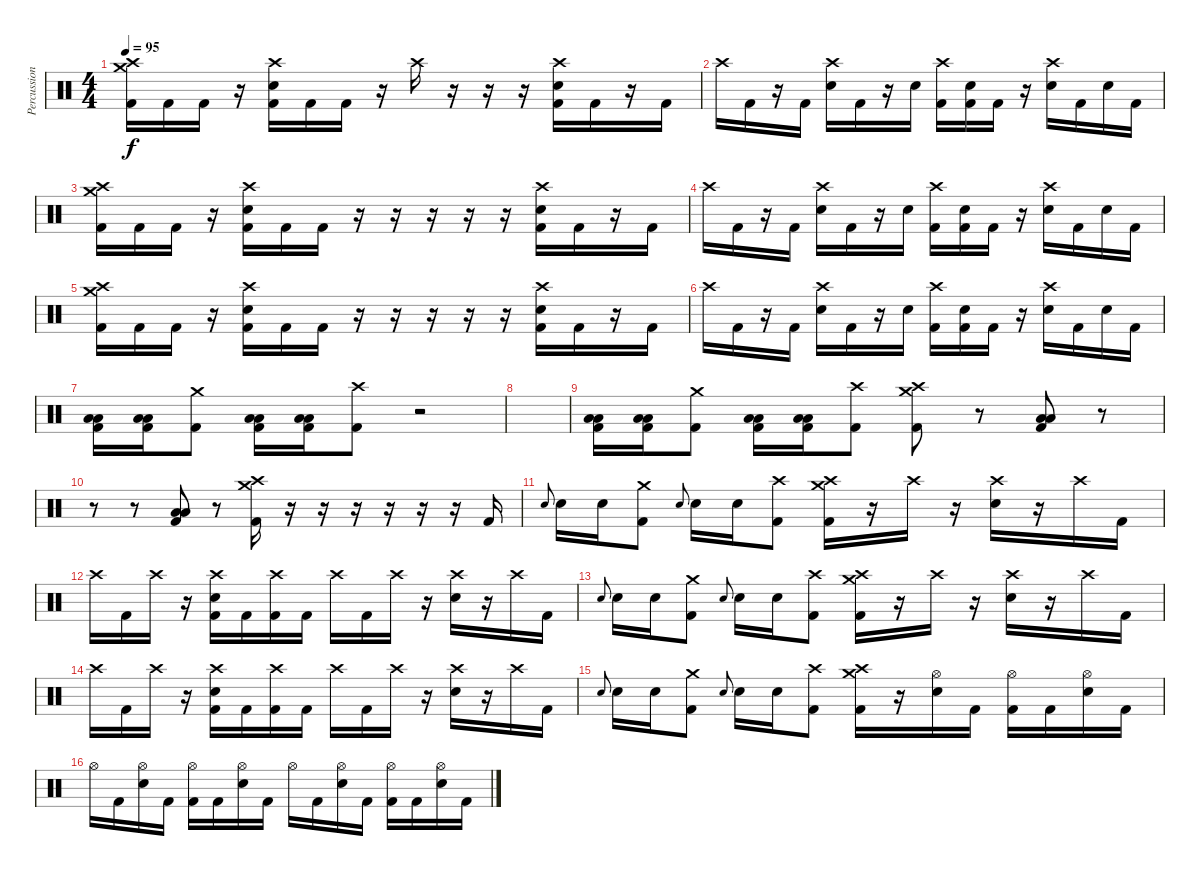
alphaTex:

\track ("Percussion" "Percussion") {instrument percussion}
\staff {score}
\articulation defaults
\ts (4 4)
\tempo 95
\clef neutral
\ks c
("Crash medium (hit)" "Crash high (hit)" "Kick (hit) 2").16{dy f} "Kick (hit) 2".16 "Kick (hit) 2".16 r.16 ("Crash high (hit)" "Electric Snare (hit)" "Kick (hit) 2").16 "Kick (hit) 2".16 "Kick (hit) 2".16 r.16 "Crash high (hit)".16 r.16 r.16 r.16 ("Crash high (hit)" "Electric Snare (hit)" "Kick (hit) 2").16 "Kick (hit) 2".16 r.16 "Kick (hit) 2".16 |
"Crash high (hit)".16 "Kick (hit) 2".16 r.16 "Kick (hit) 2".16 ("Crash high (hit)" "Electric Snare (hit)").16 "Kick (hit) 2".16 r.16 "Electric Snare (hit)".16 ("Crash high (hit)" "Kick (hit) 2").16 ("Electric Snare (hit)" "Kick (hit) 2").16 "Kick (hit) 2".16 r.16 ("Crash high (hit)" "Electric Snare (hit)").16 "Kick (hit) 2".16 "Electric Snare (hit)".16 "Kick (hit) 2".16 |
("Crash medium (hit)" "Crash high (hit)" "Kick (hit) 2").16 "Kick (hit) 2".16 "Kick (hit) 2".16 r.16 ("Crash high (hit)" "Electric Snare (hit)" "Kick (hit) 2").16 "Kick (hit) 2".16 "Kick (hit) 2".16 r.16 r.16 r.16 r.16 r.16 ("Crash high (hit)" "Electric Snare (hit)" "Kick (hit) 2").16 "Kick (hit) 2".16 r.16 "Kick (hit) 2".16 |
"Crash high (hit)".16 "Kick (hit) 2".16 r.16 "Kick (hit) 2".16 ("Crash high (hit)" "Electric Snare (hit)").16 "Kick (hit) 2".16 r.16 "Electric Snare (hit)".16 ("Crash high (hit)" "Kick (hit) 2").16 ("Electric Snare (hit)" "Kick (hit) 2").16 "Kick (hit) 2".16 r.16 ("Crash high (hit)" "Electric Snare (hit)").16 "Kick (hit) 2".16 "Electric Snare (hit)".16 "Kick (hit) 2".16 |
("Crash medium (hit)" "Crash high (hit)" "Kick (hit) 2").16 "Kick (hit) 2".16 "Kick (hit) 2".16 r.16 ("Crash high (hit)" "Electric Snare (hit)" "Kick (hit) 2").16 "Kick (hit) 2".16 "Kick (hit) 2".16 r.16 r.16 r.16 r.16 r.16 ("Crash high (hit)" "Electric Snare (hit)" "Kick (hit) 2").16 "Kick (hit) 2".16 r.16 "Kick (hit) 2".16 |
"Crash high (hit)".16 "Kick (hit) 2".16 r.16 "Kick (hit) 2".16 ("Crash high (hit)" "Electric Snare (hit)").16 "Kick (hit) 2".16 r.16 "Electric Snare (hit)".16 ("Crash high (hit)" "Kick (hit) 2").16 ("Electric Snare (hit)" "Kick (hit) 2").16 "Kick (hit) 2".16 r.16 ("Crash high (hit)" "Electric Snare (hit)").16 "Kick (hit) 2".16 "Electric Snare (hit)".16 "Kick (hit) 2".16 |
("Low Tom (hit)" "Low Floor Tom (hit)" "Kick (hit) 2").16 ("Low Tom (hit)" "Low Floor Tom (hit)" "Kick (hit) 2").16 ("Crash medium (hit)" "Kick (hit) 2").8 ("Low Tom (hit)" "Low Floor Tom (hit)" "Kick (hit) 2").16 ("Low Tom (hit)" "Low Floor Tom (hit)" "Kick (hit) 2").16 ("Crash high (hit)" "Kick (hit) 2").8 r.2 |
|
("Low Tom (hit)" "Low Floor Tom (hit)" "Kick (hit) 2").16 ("Low Tom (hit)" "Low Floor Tom (hit)" "Kick (hit) 2").16 ("Crash medium (hit)" "Kick (hit) 2").8 ("Low Tom (hit)" "Low Floor Tom (hit)" "Kick (hit) 2").16 ("Low Tom (hit)" "Low Floor Tom (hit)" "Kick (hit) 2").16 ("Crash high (hit)" "Kick (hit) 2").8 ("Crash medium (hit)" "Crash high (hit)" "Kick (hit) 2").8 r.8 ("Low Tom (hit)" "Low Floor Tom (hit)" "Kick (hit) 2").8 r.8 |
r.8 r.8 ("Low Tom (hit)" "Low Floor Tom (hit)" "Kick (hit) 2").8 r.8 ("Crash medium (hit)" "Crash high (hit)" "Kick (hit) 2").16 r.16 r.16{volume 0} r.16 r.16 r.16 r.16 "Kick (hit) 2".16{volume 13} |
"Electric Snare (hit)".8{gr onbeat} "Electric Snare (hit)".16{volume 13} "Electric Snare (hit)".16 ("Crash medium (hit)" "Kick (hit) 2").8 "Electric Snare (hit)".8{gr onbeat} "Electric Snare (hit)".16 "Electric Snare (hit)".16 ("Crash high (hit)" "Kick (hit) 2").8 ("Crash medium (hit)" "Crash high (hit)" "Kick (hit) 2").16 r.16 "Crash high (hit)".16 r.16 ("Crash high (hit)" "Electric Snare (hit)").16 r.16 "Crash high (hit)".16 "Kick (hit) 2".16 |
"Crash high (hit)".16 "Kick (hit) 2".16 "Crash high (hit)".16 r.16 ("Crash high (hit)" "Electric Snare (hit)" "Kick (hit) 2").16 "Kick (hit) 2".16 ("Crash high (hit)" "Kick (hit) 2").16 "Kick (hit) 2".16 "Crash high (hit)".16 "Kick (hit) 2".16 "Crash high (hit)".16 r.16 ("Crash high (hit)" "Electric Snare (hit)").16 r.16 "Crash high (hit)".16 "Kick (hit) 2".16 |
"Electric Snare (hit)".8{gr onbeat} "Electric Snare (hit)".16{volume 13} "Electric Snare (hit)".16 ("Crash medium (hit)" "Kick (hit) 2").8 "Electric Snare (hit)".8{gr onbeat} "Electric Snare (hit)".16 "Electric Snare (hit)".16 ("Crash high (hit)" "Kick (hit) 2").8 ("Crash medium (hit)" "Crash high (hit)" "Kick (hit) 2").16 r.16 "Crash high (hit)".16 r.16 ("Crash high (hit)" "Electric Snare (hit)").16 r.16 "Crash high (hit)".16 "Kick (hit) 2".16 |
"Crash high (hit)".16 "Kick (hit) 2".16 "Crash high (hit)".16 r.16 ("Crash high (hit)" "Electric Snare (hit)" "Kick (hit) 2").16 "Kick (hit) 2".16 ("Crash high (hit)" "Kick (hit) 2").16 "Kick (hit) 2".16 "Crash high (hit)".16 "Kick (hit) 2".16 "Crash high (hit)".16 r.16 ("Crash high (hit)" "Electric Snare (hit)").16 r.16 "Crash high (hit)".16 "Kick (hit) 2".16 |
"Electric Snare (hit)".8{gr onbeat} "Electric Snare (hit)".16{volume 13} "Electric Snare (hit)".16 ("Crash medium (hit)" "Kick (hit) 2").8 "Electric Snare (hit)".8{gr onbeat} "Electric Snare (hit)".16 "Electric Snare (hit)".16 ("Crash high (hit)" "Kick (hit) 2").8 ("Crash medium (hit)" "Crash high (hit)" "Kick (hit) 2").16 r.16 ("Hi-Hat (open)" "Electric Snare (hit)").16 "Kick (hit) 2".16 ("Hi-Hat (open)" "Kick (hit) 2").16 "Kick (hit) 2".16 ("Hi-Hat (open)" "Electric Snare (hit)").16 "Kick (hit) 2".16 |
"Hi-Hat (open)".16 "Kick (hit) 2".16 ("Hi-Hat (open)" "Electric Snare (hit)").16 "Kick (hit) 2".16 ("Hi-Hat (open)" "Kick (hit) 2").16 "Kick (hit) 2".16 ("Hi-Hat (open)" "Electric Snare (hit)").16 "Kick (hit) 2".16 "Hi-Hat (open)".16 "Kick (hit) 2".16 ("Hi-Hat (open)" "Electric Snare (hit)").16 "Kick (hit) 2".16 ("Hi-Hat (open)" "Kick (hit) 2").16 "Kick (hit) 2".16 ("Hi-Hat (open)" "Electric Snare (hit)").16 "Kick (hit) 2".16
